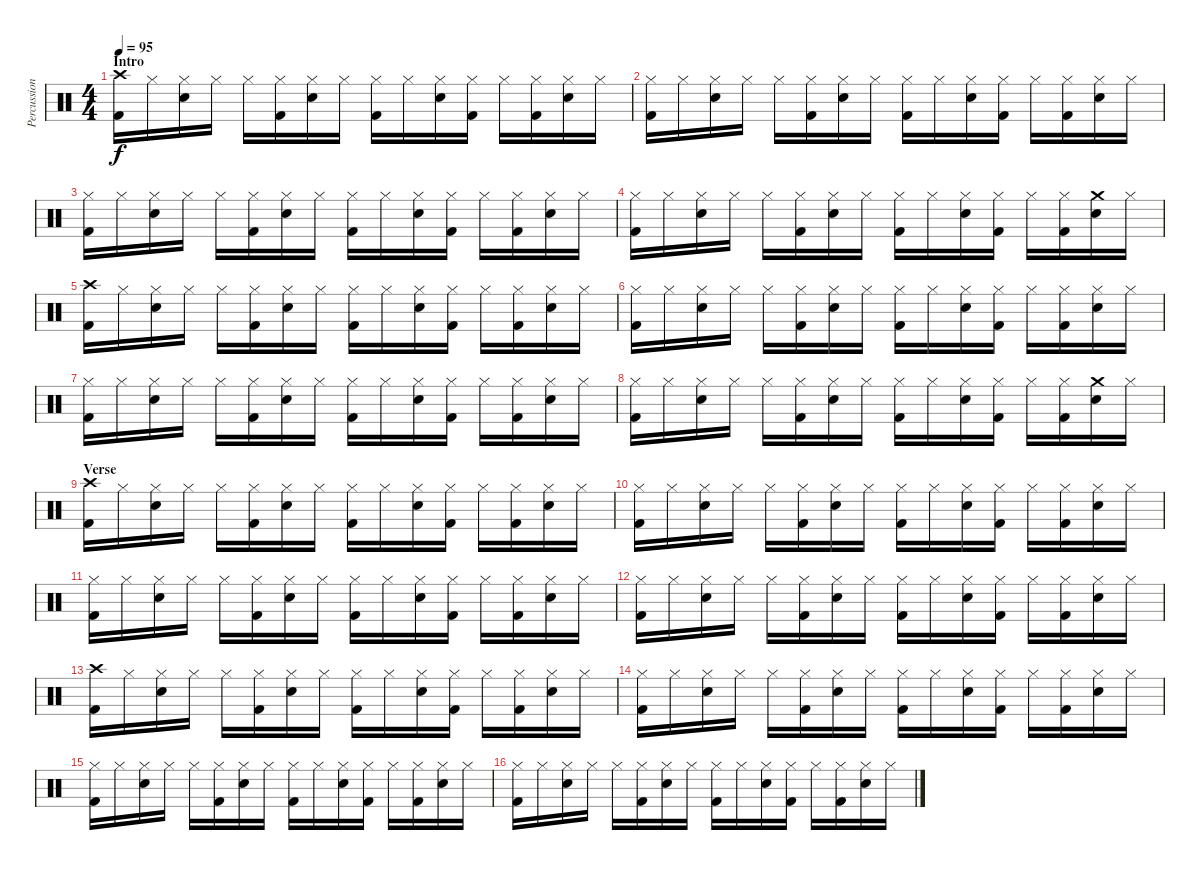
\track ("Percussion" "Percussion") {instrument percussion}
\staff {score}
\articulation defaults
\ts (4 4)
\section ("" "Intro")
\tempo 95
\clef neutral
\ks c
("Crash high (hit)" "Kick (hit) 2").16{dy f} "Hi-Hat (closed)".16 ("Hi-Hat (closed)" "Electric Snare (hit)").16 "Hi-Hat (closed)".16 "Hi-Hat (closed)".16 ("Hi-Hat (closed)" "Kick (hit) 2").16 ("Hi-Hat (closed)" "Electric Snare (hit)").16 "Hi-Hat (closed)".16 ("Hi-Hat (closed)" "Kick (hit) 2").16 "Hi-Hat (closed)".16 ("Hi-Hat (closed)" "Electric Snare (hit)").16 ("Hi-Hat (closed)" "Kick (hit) 2").16 "Hi-Hat (closed)".16 ("Hi-Hat (closed)" "Kick (hit) 2").16 ("Hi-Hat (closed)" "Electric Snare (hit)").16 "Hi-Hat (closed)".16 |
("Hi-Hat (closed)" "Kick (hit) 2").16 "Hi-Hat (closed)".16 ("Hi-Hat (closed)" "Electric Snare (hit)").16 "Hi-Hat (closed)".16 "Hi-Hat (closed)".16 ("Hi-Hat (closed)" "Kick (hit) 2").16 ("Hi-Hat (closed)" "Electric Snare (hit)").16 "Hi-Hat (closed)".16 ("Hi-Hat (closed)" "Kick (hit) 2").16 "Hi-Hat (closed)".16 ("Hi-Hat (closed)" "Electric Snare (hit)").16 ("Hi-Hat (closed)" "Kick (hit) 2").16 "Hi-Hat (closed)".16 ("Hi-Hat (closed)" "Kick (hit) 2").16 ("Hi-Hat (closed)" "Electric Snare (hit)").16 "Hi-Hat (closed)".16 |
("Hi-Hat (closed)" "Kick (hit) 2").16 "Hi-Hat (closed)".16 ("Hi-Hat (closed)" "Electric Snare (hit)").16 "Hi-Hat (closed)".16 "Hi-Hat (closed)".16 ("Hi-Hat (closed)" "Kick (hit) 2").16 ("Hi-Hat (closed)" "Electric Snare (hit)").16 "Hi-Hat (closed)".16 ("Hi-Hat (closed)" "Kick (hit) 2").16 "Hi-Hat (closed)".16 ("Hi-Hat (closed)" "Electric Snare (hit)").16 ("Hi-Hat (closed)" "Kick (hit) 2").16 "Hi-Hat (closed)".16 ("Hi-Hat (closed)" "Kick (hit) 2").16 ("Hi-Hat (closed)" "Electric Snare (hit)").16 "Hi-Hat (closed)".16 |
("Hi-Hat (closed)" "Kick (hit) 2").16 "Hi-Hat (closed)".16 ("Hi-Hat (closed)" "Electric Snare (hit)").16 "Hi-Hat (closed)".16 "Hi-Hat (closed)".16 ("Hi-Hat (closed)" "Kick (hit) 2").16 ("Hi-Hat (closed)" "Electric Snare (hit)").16 "Hi-Hat (closed)".16 ("Hi-Hat (closed)" "Kick (hit) 2").16 "Hi-Hat (closed)".16 ("Hi-Hat (closed)" "Electric Snare (hit)").16 ("Hi-Hat (closed)" "Kick (hit) 2").16 "Hi-Hat (closed)".16 ("Hi-Hat (closed)" "Kick (hit) 2").16 ("Crash medium (hit)" "Electric Snare (hit)").16 "Hi-Hat (closed)".16 |
("Crash high (hit)" "Kick (hit) 2").16 "Hi-Hat (closed)".16 ("Hi-Hat (closed)" "Electric Snare (hit)").16 "Hi-Hat (closed)".16 "Hi-Hat (closed)".16 ("Hi-Hat (closed)" "Kick (hit) 2").16 ("Hi-Hat (closed)" "Electric Snare (hit)").16 "Hi-Hat (closed)".16 ("Hi-Hat (closed)" "Kick (hit) 2").16 "Hi-Hat (closed)".16 ("Hi-Hat (closed)" "Electric Snare (hit)").16 ("Hi-Hat (closed)" "Kick (hit) 2").16 "Hi-Hat (closed)".16 ("Hi-Hat (closed)" "Kick (hit) 2").16 ("Hi-Hat (closed)" "Electric Snare (hit)").16 "Hi-Hat (closed)".16 |
("Hi-Hat (closed)" "Kick (hit) 2").16 "Hi-Hat (closed)".16 ("Hi-Hat (closed)" "Electric Snare (hit)").16 "Hi-Hat (closed)".16 "Hi-Hat (closed)".16 ("Hi-Hat (closed)" "Kick (hit) 2").16 ("Hi-Hat (closed)" "Electric Snare (hit)").16 "Hi-Hat (closed)".16 ("Hi-Hat (closed)" "Kick (hit) 2").16 "Hi-Hat (closed)".16 ("Hi-Hat (closed)" "Electric Snare (hit)").16 ("Hi-Hat (closed)" "Kick (hit) 2").16 "Hi-Hat (closed)".16 ("Hi-Hat (closed)" "Kick (hit) 2").16 ("Hi-Hat (closed)" "Electric Snare (hit)").16 "Hi-Hat (closed)".16 |
("Hi-Hat (closed)" "Kick (hit) 2").16 "Hi-Hat (closed)".16 ("Hi-Hat (closed)" "Electric Snare (hit)").16 "Hi-Hat (closed)".16 "Hi-Hat (closed)".16 ("Hi-Hat (closed)" "Kick (hit) 2").16 ("Hi-Hat (closed)" "Electric Snare (hit)").16 "Hi-Hat (closed)".16 ("Hi-Hat (closed)" "Kick (hit) 2").16 "Hi-Hat (closed)".16 ("Hi-Hat (closed)" "Electric Snare (hit)").16 ("Hi-Hat (closed)" "Kick (hit) 2").16 "Hi-Hat (closed)".16 ("Hi-Hat (closed)" "Kick (hit) 2").16 ("Hi-Hat (closed)" "Electric Snare (hit)").16 "Hi-Hat (closed)".16 |
("Hi-Hat (closed)" "Kick (hit) 2").16 "Hi-Hat (closed)".16 ("Hi-Hat (closed)" "Electric Snare (hit)").16 "Hi-Hat (closed)".16 "Hi-Hat (closed)".16 ("Hi-Hat (closed)" "Kick (hit) 2").16 ("Hi-Hat (closed)" "Electric Snare (hit)").16 "Hi-Hat (closed)".16 ("Hi-Hat (closed)" "Kick (hit) 2").16 "Hi-Hat (closed)".16 ("Hi-Hat (closed)" "Electric Snare (hit)").16 ("Hi-Hat (closed)" "Kick (hit) 2").16 "Hi-Hat (closed)".16 ("Hi-Hat (closed)" "Kick (hit) 2").16 ("Crash medium (hit)" "Electric Snare (hit)").16 "Hi-Hat (closed)".16 |
\section ("" "Verse")
("Crash high (hit)" "Kick (hit) 2").16 "Hi-Hat (closed)".16 ("Hi-Hat (closed)" "Electric Snare (hit)").16 "Hi-Hat (closed)".16 "Hi-Hat (closed)".16 ("Hi-Hat (closed)" "Kick (hit) 2").16 ("Hi-Hat (closed)" "Electric Snare (hit)").16 "Hi-Hat (closed)".16 ("Hi-Hat (closed)" "Kick (hit) 2").16 "Hi-Hat (closed)".16 ("Hi-Hat (closed)" "Electric Snare (hit)").16 ("Hi-Hat (closed)" "Kick (hit) 2").16 "Hi-Hat (closed)".16 ("Hi-Hat (closed)" "Kick (hit) 2").16 ("Hi-Hat (closed)" "Electric Snare (hit)").16 "Hi-Hat (closed)".16 |
("Hi-Hat (closed)" "Kick (hit) 2").16 "Hi-Hat (closed)".16 ("Hi-Hat (closed)" "Electric Snare (hit)").16 "Hi-Hat (closed)".16 "Hi-Hat (closed)".16 ("Hi-Hat (closed)" "Kick (hit) 2").16 ("Hi-Hat (closed)" "Electric Snare (hit)").16 "Hi-Hat (closed)".16 ("Hi-Hat (closed)" "Kick (hit) 2").16 "Hi-Hat (closed)".16 ("Hi-Hat (closed)" "Electric Snare (hit)").16 ("Hi-Hat (closed)" "Kick (hit) 2").16 "Hi-Hat (closed)".16 ("Hi-Hat (closed)" "Kick (hit) 2").16 ("Hi-Hat (closed)" "Electric Snare (hit)").16 "Hi-Hat (closed)".16 |
("Hi-Hat (closed)" "Kick (hit) 2").16 "Hi-Hat (closed)".16 ("Hi-Hat (closed)" "Electric Snare (hit)").16 "Hi-Hat (closed)".16 "Hi-Hat (closed)".16 ("Hi-Hat (closed)" "Kick (hit) 2").16 ("Hi-Hat (closed)" "Electric Snare (hit)").16 "Hi-Hat (closed)".16 ("Hi-Hat (closed)" "Kick (hit) 2").16 "Hi-Hat (closed)".16 ("Hi-Hat (closed)" "Electric Snare (hit)").16 ("Hi-Hat (closed)" "Kick (hit) 2").16 "Hi-Hat (closed)".16 ("Hi-Hat (closed)" "Kick (hit) 2").16 ("Hi-Hat (closed)" "Electric Snare (hit)").16 "Hi-Hat (closed)".16 |
("Hi-Hat (closed)" "Kick (hit) 2").16 "Hi-Hat (closed)".16 ("Hi-Hat (closed)" "Electric Snare (hit)").16 "Hi-Hat (closed)".16 "Hi-Hat (closed)".16 ("Hi-Hat (closed)" "Kick (hit) 2").16 ("Hi-Hat (closed)" "Electric Snare (hit)").16 "Hi-Hat (closed)".16 ("Hi-Hat (closed)" "Kick (hit) 2").16 "Hi-Hat (closed)".16 ("Hi-Hat (closed)" "Electric Snare (hit)").16 ("Hi-Hat (closed)" "Kick (hit) 2").16 "Hi-Hat (closed)".16 ("Hi-Hat (closed)" "Kick (hit) 2").16 ("Hi-Hat (closed)" "Electric Snare (hit)").16 "Hi-Hat (closed)".16 |
("Crash high (hit)" "Kick (hit) 2").16 "Hi-Hat (closed)".16 ("Hi-Hat (closed)" "Electric Snare (hit)").16 "Hi-Hat (closed)".16 "Hi-Hat (closed)".16 ("Hi-Hat (closed)" "Kick (hit) 2").16 ("Hi-Hat (closed)" "Electric Snare (hit)").16 "Hi-Hat (closed)".16 ("Hi-Hat (closed)" "Kick (hit) 2").16 "Hi-Hat (closed)".16 ("Hi-Hat (closed)" "Electric Snare (hit)").16 ("Hi-Hat (closed)" "Kick (hit) 2").16 "Hi-Hat (closed)".16 ("Hi-Hat (closed)" "Kick (hit) 2").16 ("Hi-Hat (closed)" "Electric Snare (hit)").16 "Hi-Hat (closed)".16 |
("Hi-Hat (closed)" "Kick (hit) 2").16 "Hi-Hat (closed)".16 ("Hi-Hat (closed)" "Electric Snare (hit)").16 "Hi-Hat (closed)".16 "Hi-Hat (closed)".16 ("Hi-Hat (closed)" "Kick (hit) 2").16 ("Hi-Hat (closed)" "Electric Snare (hit)").16 "Hi-Hat (closed)".16 ("Hi-Hat (closed)" "Kick (hit) 2").16 "Hi-Hat (closed)".16 ("Hi-Hat (closed)" "Electric Snare (hit)").16 ("Hi-Hat (closed)" "Kick (hit) 2").16 "Hi-Hat (closed)".16 ("Hi-Hat (closed)" "Kick (hit) 2").16 ("Hi-Hat (closed)" "Electric Snare (hit)").16 "Hi-Hat (closed)".16 |
("Hi-Hat (closed)" "Kick (hit) 2").16 "Hi-Hat (closed)".16 ("Hi-Hat (closed)" "Electric Snare (hit)").16 "Hi-Hat (closed)".16 "Hi-Hat (closed)".16 ("Hi-Hat (closed)" "Kick (hit) 2").16 ("Hi-Hat (closed)" "Electric Snare (hit)").16 "Hi-Hat (closed)".16 ("Hi-Hat (closed)" "Kick (hit) 2").16 "Hi-Hat (closed)".16 ("Hi-Hat (closed)" "Electric Snare (hit)").16 ("Hi-Hat (closed)" "Kick (hit) 2").16 "Hi-Hat (closed)".16 ("Hi-Hat (closed)" "Kick (hit) 2").16 ("Hi-Hat (closed)" "Electric Snare (hit)").16 "Hi-Hat (closed)".16 |
("Hi-Hat (closed)" "Kick (hit) 2").16 "Hi-Hat (closed)".16 ("Hi-Hat (closed)" "Electric Snare (hit)").16 "Hi-Hat (closed)".16 "Hi-Hat (closed)".16 ("Hi-Hat (closed)" "Kick (hit) 2").16 ("Hi-Hat (closed)" "Electric Snare (hit)").16 "Hi-Hat (closed)".16 ("Hi-Hat (closed)" "Kick (hit) 2").16 "Hi-Hat (closed)".16 ("Hi-Hat (closed)" "Electric Snare (hit)").16 ("Hi-Hat (closed)" "Kick (hit) 2").16 "Hi-Hat (closed)".16 ("Hi-Hat (closed)" "Kick (hit) 2").16 ("Hi-Hat (closed)" "Electric Snare (hit)").16 "Hi-Hat (closed)".16
